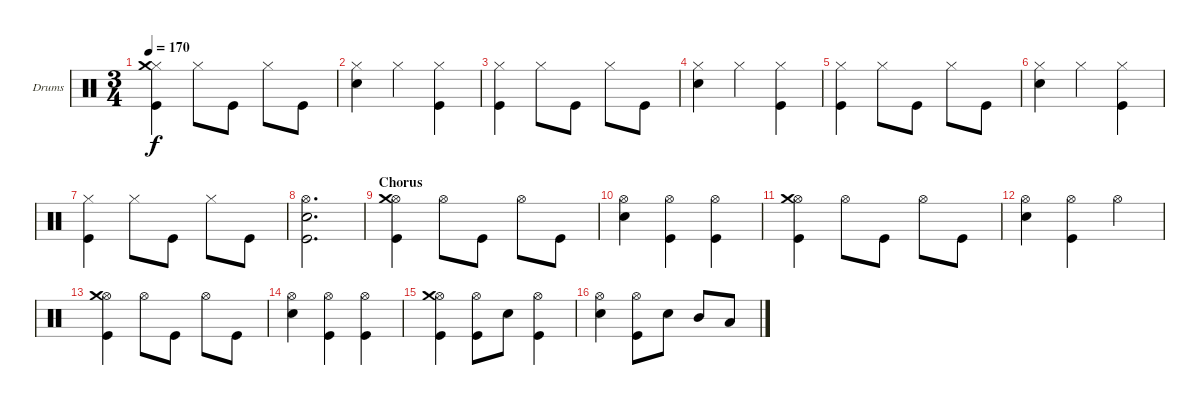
\defaultSystemsLayout 4
\bracketExtendMode groupsimilarinstruments
\firstSystemTrackNameOrientation horizontal
\otherSystemsTrackNameOrientation horizontal
\track ("Drums" "Drums") {instrument percussion}
\staff {score}
\articulation defaults
\ts (3 4)
\tempo 170
\clef neutral
\ks c
("Kick (hit)" "Hi-Hat (closed)" "Crash medium (hit)").4{dy f} "Hi-Hat (closed)".8 "Kick (hit)".8 "Hi-Hat (closed)".8 "Kick (hit)".8 |
("Snare (hit) 2" "Hi-Hat (closed)").4 "Hi-Hat (closed)".4 ("Kick (hit)" "Hi-Hat (closed)").4 |
("Kick (hit)" "Hi-Hat (closed)").4 "Hi-Hat (closed)".8 "Kick (hit)".8 "Hi-Hat (closed)".8 "Kick (hit)".8 |
("Snare (hit) 2" "Hi-Hat (closed)").4 "Hi-Hat (closed)".4 ("Kick (hit)" "Hi-Hat (closed)").4 |
("Kick (hit)" "Hi-Hat (closed)").4 "Hi-Hat (closed)".8 "Kick (hit)".8 "Hi-Hat (closed)".8 "Kick (hit)".8 |
("Snare (hit) 2" "Hi-Hat (closed)").4 "Hi-Hat (closed)".4 ("Kick (hit)" "Hi-Hat (closed)").4 |
("Kick (hit)" "Hi-Hat (closed)").4 "Hi-Hat (closed)".8 "Kick (hit)".8 "Hi-Hat (closed)".8 "Kick (hit)".8 |
("Snare (hit) 2" "Hi-Hat (open)" "Kick (hit)").2{d} |
\section ("" "Chorus")
("Hi-Hat (open)" "Kick (hit)" "Crash medium (hit)").4 "Hi-Hat (open)".8 "Kick (hit)".8 "Hi-Hat (open)".8 "Kick (hit)".8 |
("Hi-Hat (open)" "Snare (hit) 2").4 ("Hi-Hat (open)" "Kick (hit)").4 ("Hi-Hat (open)" "Kick (hit)").4 |
("Hi-Hat (open)" "Kick (hit)" "Crash medium (hit)").4 "Hi-Hat (open)".8 "Kick (hit)".8 "Hi-Hat (open)".8 "Kick (hit)".8 |
("Hi-Hat (open)" "Snare (hit) 2").4 ("Hi-Hat (open)" "Kick (hit)").4 "Hi-Hat (open)".4 |
("Hi-Hat (open)" "Kick (hit)" "Crash medium (hit)").4 "Hi-Hat (open)".8 "Kick (hit)".8 "Hi-Hat (open)".8 "Kick (hit)".8 |
("Hi-Hat (open)" "Snare (hit) 2").4 ("Hi-Hat (open)" "Kick (hit)").4 ("Hi-Hat (open)" "Kick (hit)").4 |
("Hi-Hat (open)" "Kick (hit)" "Crash medium (hit)").4 ("Hi-Hat (open)" "Kick (hit)").8 "Snare (hit) 2".8 ("Hi-Hat (open)" "Kick (hit)").4 |
("Hi-Hat (open)" "Snare (hit) 2").4 ("Hi-Hat (open)" "Kick (hit)").8 "Snare (hit) 2".8 "Mid Tom (hit)".8 "Low Tom (hit)".8
